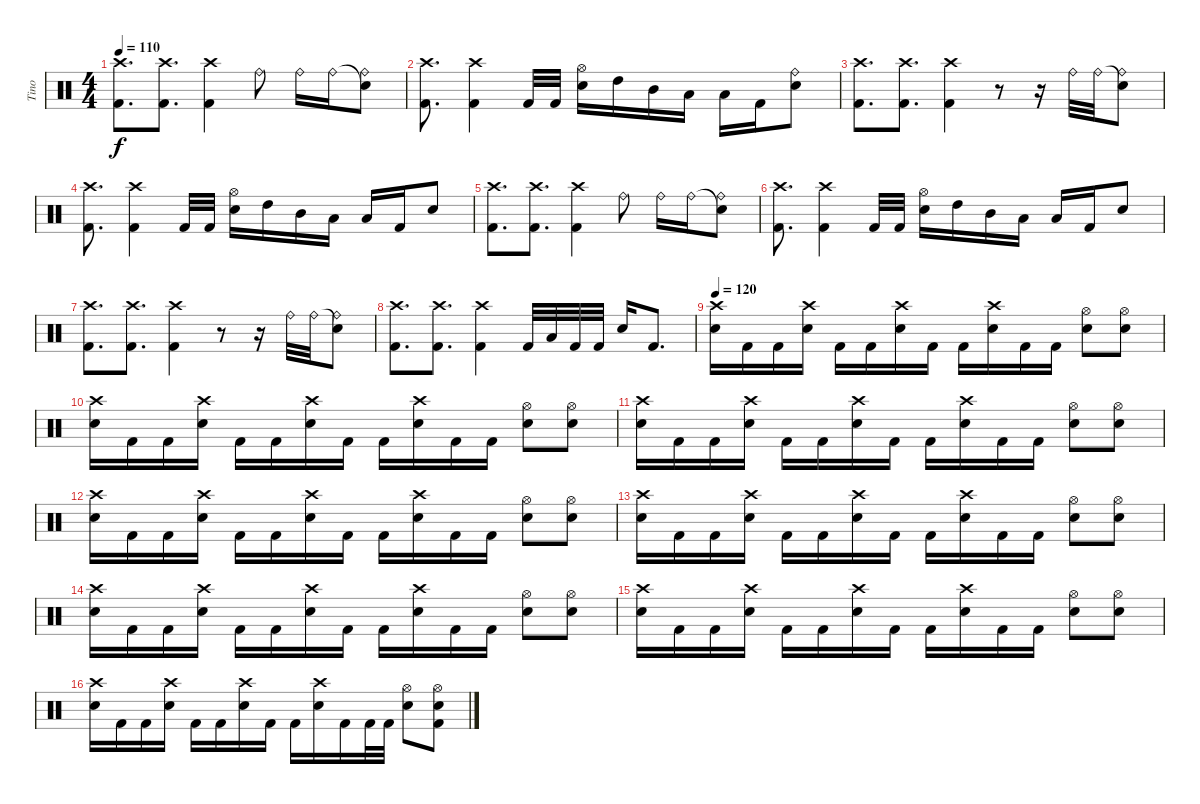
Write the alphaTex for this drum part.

\track ("Tino" "Tino") {instrument percussion}
\staff {score}
\articulation defaults
\ts (4 4)
\tempo 110
\clef neutral
\ks c
("Kick (hit) 2" "Crash high (hit)").8{d dy f} ("Kick (hit) 2" "Crash high (hit)").8{d} ("Kick (hit) 2" "Crash high (hit)").4 "Ride (bell)".8 "Ride (bell)".16 "Ride (bell)".16 ("Snare (hit)"{t} "Ride (bell)").8 |
("Kick (hit) 2" "Crash high (hit)").8{d} ("Kick (hit) 2" "Crash high (hit)").4 "Kick (hit) 2".32 "Kick (hit) 2".32 ("Electric Snare (hit)" "Hi-Hat (open)").16 "High Tom (hit)".16 "Mid Tom (hit)".16 "Low Tom (hit)".16 "Low Tom (hit)".16 "Kick (hit) 2".16 ("Electric Snare (hit)" "Ride (bell)").8 |
("Kick (hit) 2" "Crash high (hit)").8{d} ("Kick (hit) 2" "Crash high (hit)").8{d} ("Kick (hit) 2" "Crash high (hit)").4 r.8 r.16 "Ride (bell)".32 "Ride (bell)".32 ("Snare (hit)"{t} "Ride (bell)").8 |
("Kick (hit) 2" "Crash high (hit)").8{d} ("Kick (hit) 2" "Crash high (hit)").4 "Kick (hit) 2".32 "Kick (hit) 2".32 ("Electric Snare (hit)" "Hi-Hat (open)").16 "High Tom (hit)".16 "Mid Tom (hit)".16 "Low Tom (hit)".16 "Low Tom (hit)".16 "Kick (hit) 2".16 "Electric Snare (hit)".8 |
("Kick (hit) 2" "Crash high (hit)").8{d} ("Kick (hit) 2" "Crash high (hit)").8{d} ("Kick (hit) 2" "Crash high (hit)").4 "Ride (bell)".8 "Ride (bell)".16 "Ride (bell)".16 ("Snare (hit)"{t} "Ride (bell)").8 |
("Kick (hit) 2" "Crash high (hit)").8{d} ("Kick (hit) 2" "Crash high (hit)").4 "Kick (hit) 2".32 "Kick (hit) 2".32 ("Electric Snare (hit)" "Hi-Hat (open)").16 "High Tom (hit)".16 "Mid Tom (hit)".16 "Low Tom (hit)".16 "Low Tom (hit)".16 "Kick (hit) 2".16 "Electric Snare (hit)".8 |
("Kick (hit) 2" "Crash high (hit)").8{d} ("Kick (hit) 2" "Crash high (hit)").8{d} ("Kick (hit) 2" "Crash high (hit)").4 r.8 r.16 "Ride (bell)".32 "Ride (bell)".32 ("Snare (hit)"{t} "Ride (bell)").8 |
("Kick (hit) 2" "Crash high (hit)").8{d} ("Kick (hit) 2" "Crash high (hit)").8{d} ("Kick (hit) 2" "Crash high (hit)").4 "Kick (hit) 2".32 "Low Floor Tom (hit)".32 "Kick (hit) 2".32 "Kick (hit) 2".32 "Electric Snare (hit)".16 "Kick (hit) 2".8{d} |
\tempo 120
("Electric Snare (hit)" "Crash high (hit)").16 "Kick (hit) 2".16 "Kick (hit) 2".16 ("Electric Snare (hit)" "Crash high (hit)").16 "Kick (hit) 2".16 "Kick (hit) 2".16 ("Electric Snare (hit)" "Crash high (hit)").16 "Kick (hit) 2".16 "Kick (hit) 2".16 ("Electric Snare (hit)" "Crash high (hit)").16 "Kick (hit) 2".16 "Kick (hit) 2".16 ("Electric Snare (hit)" "Hi-Hat (open)").8 ("Electric Snare (hit)" "Hi-Hat (open)").8 |
("Electric Snare (hit)" "Crash high (hit)").16 "Kick (hit) 2".16 "Kick (hit) 2".16 ("Electric Snare (hit)" "Crash high (hit)").16 "Kick (hit) 2".16 "Kick (hit) 2".16 ("Electric Snare (hit)" "Crash high (hit)").16 "Kick (hit) 2".16 "Kick (hit) 2".16 ("Electric Snare (hit)" "Crash high (hit)").16 "Kick (hit) 2".16 "Kick (hit) 2".16 ("Electric Snare (hit)" "Hi-Hat (open)").8 ("Electric Snare (hit)" "Hi-Hat (open)").8 |
("Electric Snare (hit)" "Crash high (hit)").16 "Kick (hit) 2".16 "Kick (hit) 2".16 ("Electric Snare (hit)" "Crash high (hit)").16 "Kick (hit) 2".16 "Kick (hit) 2".16 ("Electric Snare (hit)" "Crash high (hit)").16 "Kick (hit) 2".16 "Kick (hit) 2".16 ("Electric Snare (hit)" "Crash high (hit)").16 "Kick (hit) 2".16 "Kick (hit) 2".16 ("Electric Snare (hit)" "Hi-Hat (open)").8 ("Electric Snare (hit)" "Hi-Hat (open)").8 |
("Electric Snare (hit)" "Crash high (hit)").16 "Kick (hit) 2".16 "Kick (hit) 2".16 ("Electric Snare (hit)" "Crash high (hit)").16 "Kick (hit) 2".16 "Kick (hit) 2".16 ("Electric Snare (hit)" "Crash high (hit)").16 "Kick (hit) 2".16 "Kick (hit) 2".16 ("Electric Snare (hit)" "Crash high (hit)").16 "Kick (hit) 2".16 "Kick (hit) 2".16 ("Electric Snare (hit)" "Hi-Hat (open)").8 ("Electric Snare (hit)" "Hi-Hat (open)").8 |
("Electric Snare (hit)" "Crash high (hit)").16 "Kick (hit) 2".16 "Kick (hit) 2".16 ("Electric Snare (hit)" "Crash high (hit)").16 "Kick (hit) 2".16 "Kick (hit) 2".16 ("Electric Snare (hit)" "Crash high (hit)").16 "Kick (hit) 2".16 "Kick (hit) 2".16 ("Electric Snare (hit)" "Crash high (hit)").16 "Kick (hit) 2".16 "Kick (hit) 2".16 ("Electric Snare (hit)" "Hi-Hat (open)").8 ("Electric Snare (hit)" "Hi-Hat (open)").8 |
("Electric Snare (hit)" "Crash high (hit)").16 "Kick (hit) 2".16 "Kick (hit) 2".16 ("Electric Snare (hit)" "Crash high (hit)").16 "Kick (hit) 2".16 "Kick (hit) 2".16 ("Electric Snare (hit)" "Crash high (hit)").16 "Kick (hit) 2".16 "Kick (hit) 2".16 ("Electric Snare (hit)" "Crash high (hit)").16 "Kick (hit) 2".16 "Kick (hit) 2".16 ("Electric Snare (hit)" "Hi-Hat (open)").8 ("Electric Snare (hit)" "Hi-Hat (open)").8 |
("Electric Snare (hit)" "Crash high (hit)").16 "Kick (hit) 2".16 "Kick (hit) 2".16 ("Electric Snare (hit)" "Crash high (hit)").16 "Kick (hit) 2".16 "Kick (hit) 2".16 ("Electric Snare (hit)" "Crash high (hit)").16 "Kick (hit) 2".16 "Kick (hit) 2".16 ("Electric Snare (hit)" "Crash high (hit)").16 "Kick (hit) 2".16 "Kick (hit) 2".16 ("Electric Snare (hit)" "Hi-Hat (open)").8 ("Electric Snare (hit)" "Hi-Hat (open)").8 |
("Electric Snare (hit)" "Crash high (hit)").16 "Kick (hit) 2".16 "Kick (hit) 2".16 ("Electric Snare (hit)" "Crash high (hit)").16 "Kick (hit) 2".16 "Kick (hit) 2".16 ("Electric Snare (hit)" "Crash high (hit)").16 "Kick (hit) 2".16 "Kick (hit) 2".16 ("Electric Snare (hit)" "Crash high (hit)").16 "Kick (hit) 2".16 "Kick (hit) 2".32 "Kick (hit) 2".32 ("Electric Snare (hit)" "Hi-Hat (open)").8 ("Electric Snare (hit)" "Kick (hit) 2" "Hi-Hat (open)").8
